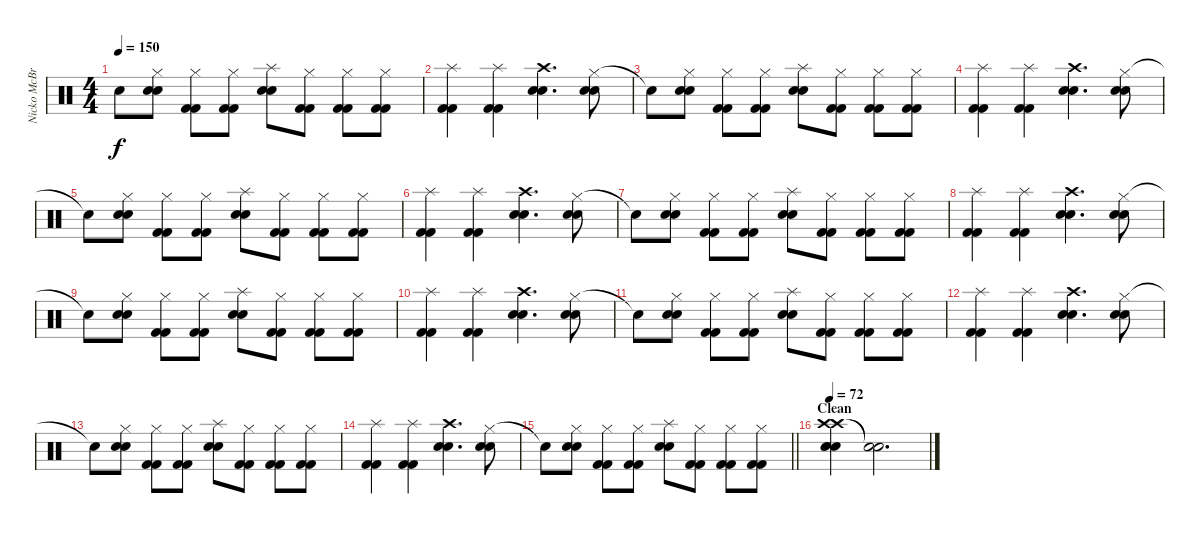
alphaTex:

\track ("Nicko McBrain" "Nicko McBr") {instrument percussion}
\staff {score}
\articulation defaults
\ts (4 4)
\tempo 150
\clef neutral
\ks c "Snare (hit) 2"{t}.8{dy f}
("Hi-Hat (closed)" "Snare (hit) 2" "Snare (hit) 2").8 ("Hi-Hat (closed)" "Kick (hit) 2" "Kick (hit) 2").8 ("Hi-Hat (closed)" "Kick (hit) 2" "Kick (hit) 2").8 ("Splash (hit)" "Snare (hit) 2" "Snare (hit) 2").8 ("Hi-Hat (closed)" "Kick (hit) 2" "Kick (hit) 2").8 ("Hi-Hat (closed)" "Kick (hit) 2" "Kick (hit) 2").8 ("Hi-Hat (closed)" "Kick (hit) 2" "Kick (hit) 2").8 |
("Splash (hit)" "Kick (hit) 2" "Kick (hit) 2").4 ("Splash (hit)" "Kick (hit) 2" "Kick (hit) 2").4 ("Crash high (hit)" "Snare (hit) 2" "Snare (hit) 2").4{d} ("Hi-Hat (closed)" "Snare (hit) 2" "Snare (hit) 2").8 |
"Snare (hit) 2"{t}.8 ("Hi-Hat (closed)" "Snare (hit) 2" "Snare (hit) 2").8 ("Hi-Hat (closed)" "Kick (hit) 2" "Kick (hit) 2").8 ("Hi-Hat (closed)" "Kick (hit) 2" "Kick (hit) 2").8 ("Splash (hit)" "Snare (hit) 2" "Snare (hit) 2").8 ("Hi-Hat (closed)" "Kick (hit) 2" "Kick (hit) 2").8 ("Hi-Hat (closed)" "Kick (hit) 2" "Kick (hit) 2").8 ("Hi-Hat (closed)" "Kick (hit) 2" "Kick (hit) 2").8 |
("Splash (hit)" "Kick (hit) 2" "Kick (hit) 2").4 ("Splash (hit)" "Kick (hit) 2" "Kick (hit) 2").4 ("Crash high (hit)" "Snare (hit) 2" "Snare (hit) 2").4{d} ("Hi-Hat (closed)" "Snare (hit) 2" "Snare (hit) 2").8 |
"Snare (hit) 2"{t}.8 ("Hi-Hat (closed)" "Snare (hit) 2" "Snare (hit) 2").8 ("Hi-Hat (closed)" "Kick (hit) 2" "Kick (hit) 2").8 ("Hi-Hat (closed)" "Kick (hit) 2" "Kick (hit) 2").8 ("Splash (hit)" "Snare (hit) 2" "Snare (hit) 2").8 ("Hi-Hat (closed)" "Kick (hit) 2" "Kick (hit) 2").8 ("Hi-Hat (closed)" "Kick (hit) 2" "Kick (hit) 2").8 ("Hi-Hat (closed)" "Kick (hit) 2" "Kick (hit) 2").8 |
("Splash (hit)" "Kick (hit) 2" "Kick (hit) 2").4 ("Splash (hit)" "Kick (hit) 2" "Kick (hit) 2").4 ("Crash high (hit)" "Snare (hit) 2" "Snare (hit) 2").4{d} ("Hi-Hat (closed)" "Snare (hit) 2" "Snare (hit) 2").8 |
"Snare (hit) 2"{t}.8 ("Hi-Hat (closed)" "Snare (hit) 2" "Snare (hit) 2").8 ("Hi-Hat (closed)" "Kick (hit) 2" "Kick (hit) 2").8 ("Hi-Hat (closed)" "Kick (hit) 2" "Kick (hit) 2").8 ("Splash (hit)" "Snare (hit) 2" "Snare (hit) 2").8 ("Hi-Hat (closed)" "Kick (hit) 2" "Kick (hit) 2").8 ("Hi-Hat (closed)" "Kick (hit) 2" "Kick (hit) 2").8 ("Hi-Hat (closed)" "Kick (hit) 2" "Kick (hit) 2").8 |
("Splash (hit)" "Kick (hit) 2" "Kick (hit) 2").4 ("Splash (hit)" "Kick (hit) 2" "Kick (hit) 2").4 ("Crash high (hit)" "Snare (hit) 2" "Snare (hit) 2").4{d} ("Hi-Hat (closed)" "Snare (hit) 2" "Snare (hit) 2").8 |
"Snare (hit) 2"{t}.8 ("Hi-Hat (closed)" "Snare (hit) 2" "Snare (hit) 2").8 ("Hi-Hat (closed)" "Kick (hit) 2" "Kick (hit) 2").8 ("Hi-Hat (closed)" "Kick (hit) 2" "Kick (hit) 2").8 ("Splash (hit)" "Snare (hit) 2" "Snare (hit) 2").8 ("Hi-Hat (closed)" "Kick (hit) 2" "Kick (hit) 2").8 ("Hi-Hat (closed)" "Kick (hit) 2" "Kick (hit) 2").8 ("Hi-Hat (closed)" "Kick (hit) 2" "Kick (hit) 2").8 |
("Splash (hit)" "Kick (hit) 2" "Kick (hit) 2").4 ("Splash (hit)" "Kick (hit) 2" "Kick (hit) 2").4 ("Crash high (hit)" "Snare (hit) 2" "Snare (hit) 2").4{d} ("Hi-Hat (closed)" "Snare (hit) 2" "Snare (hit) 2").8 |
"Snare (hit) 2"{t}.8 ("Hi-Hat (closed)" "Snare (hit) 2" "Snare (hit) 2").8 ("Hi-Hat (closed)" "Kick (hit) 2" "Kick (hit) 2").8 ("Hi-Hat (closed)" "Kick (hit) 2" "Kick (hit) 2").8 ("Splash (hit)" "Snare (hit) 2" "Snare (hit) 2").8 ("Hi-Hat (closed)" "Kick (hit) 2" "Kick (hit) 2").8 ("Hi-Hat (closed)" "Kick (hit) 2" "Kick (hit) 2").8 ("Hi-Hat (closed)" "Kick (hit) 2" "Kick (hit) 2").8 |
("Splash (hit)" "Kick (hit) 2" "Kick (hit) 2").4 ("Splash (hit)" "Kick (hit) 2" "Kick (hit) 2").4 ("Crash high (hit)" "Snare (hit) 2" "Snare (hit) 2").4{d} ("Hi-Hat (closed)" "Snare (hit) 2" "Snare (hit) 2").8 |
"Snare (hit) 2"{t}.8 ("Hi-Hat (closed)" "Snare (hit) 2" "Snare (hit) 2").8 ("Hi-Hat (closed)" "Kick (hit) 2" "Kick (hit) 2").8 ("Hi-Hat (closed)" "Kick (hit) 2" "Kick (hit) 2").8 ("Splash (hit)" "Snare (hit) 2" "Snare (hit) 2").8 ("Hi-Hat (closed)" "Kick (hit) 2" "Kick (hit) 2").8 ("Hi-Hat (closed)" "Kick (hit) 2" "Kick (hit) 2").8 ("Hi-Hat (closed)" "Kick (hit) 2" "Kick (hit) 2").8 |
("Splash (hit)" "Kick (hit) 2" "Kick (hit) 2").4 ("Splash (hit)" "Kick (hit) 2" "Kick (hit) 2").4 ("Crash high (hit)" "Snare (hit) 2" "Snare (hit) 2").4{d} ("Hi-Hat (closed)" "Snare (hit) 2" "Snare (hit) 2").8 |
\barLineRight lightlight "Snare (hit) 2"{t}.8
("Hi-Hat (closed)" "Snare (hit) 2" "Snare (hit) 2").8 ("Hi-Hat (closed)" "Kick (hit) 2" "Kick (hit) 2").8 ("Hi-Hat (closed)" "Kick (hit) 2" "Kick (hit) 2").8 ("Splash (hit)" "Snare (hit) 2" "Snare (hit) 2").8 ("Hi-Hat (closed)" "Kick (hit) 2" "Kick (hit) 2").8 ("Hi-Hat (closed)" "Kick (hit) 2" "Kick (hit) 2").8 ("Hi-Hat (closed)" "Kick (hit) 2" "Kick (hit) 2").8 |
\section ("" "Clean")
\tempo 72
("Crash high (hit)" "Crash high (hit)" "Snare (hit) 2" "Snare (hit) 2" "Snare (hit) 2").4 ("Snare (hit)"{t} "Snare (hit)"{t}).2{d}
